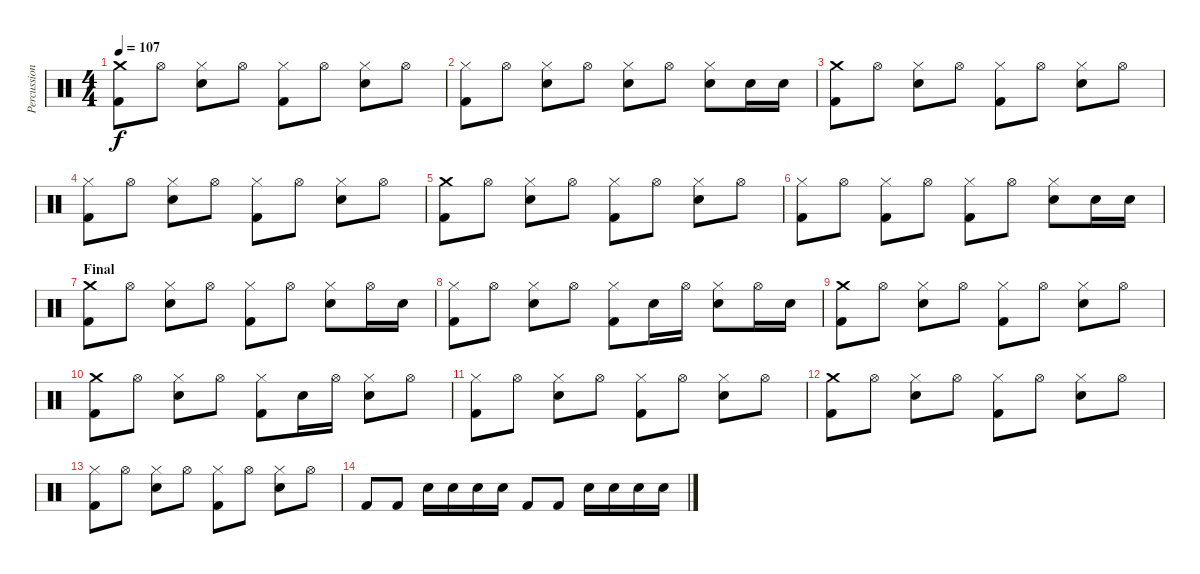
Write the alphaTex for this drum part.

\track ("Percussions" "Percussion") {instrument percussion}
\staff {score}
\articulation defaults
\ts (4 4)
\tempo 107
\clef neutral
\ks c
("Crash medium (hit)" "Kick (hit) 2").8{dy f} "Hi-Hat (open)".8 ("Hi-Hat (closed)" "Electric Snare (hit)").8 "Hi-Hat (open)".8 ("Hi-Hat (closed)" "Kick (hit) 2").8 "Hi-Hat (open)".8 ("Hi-Hat (closed)" "Electric Snare (hit)").8 "Hi-Hat (open)".8 |
("Hi-Hat (closed)" "Kick (hit) 2").8 "Hi-Hat (open)".8 ("Hi-Hat (closed)" "Electric Snare (hit)").8 "Hi-Hat (open)".8 ("Hi-Hat (closed)" "Electric Snare (hit)").8 "Hi-Hat (open)".8 ("Hi-Hat (closed)" "Electric Snare (hit)").8 "Electric Snare (hit)".16 "Electric Snare (hit)".16 |
("Crash medium (hit)" "Kick (hit) 2").8 "Hi-Hat (open)".8 ("Hi-Hat (closed)" "Electric Snare (hit)").8 "Hi-Hat (open)".8 ("Hi-Hat (closed)" "Kick (hit) 2").8 "Hi-Hat (open)".8 ("Hi-Hat (closed)" "Electric Snare (hit)").8 "Hi-Hat (open)".8 |
("Hi-Hat (closed)" "Kick (hit) 2").8 "Hi-Hat (open)".8 ("Hi-Hat (closed)" "Electric Snare (hit)").8 "Hi-Hat (open)".8 ("Hi-Hat (closed)" "Kick (hit) 2").8 "Hi-Hat (open)".8 ("Hi-Hat (closed)" "Electric Snare (hit)").8 "Hi-Hat (open)".8 |
("Crash medium (hit)" "Kick (hit) 2").8 "Hi-Hat (open)".8 ("Hi-Hat (closed)" "Electric Snare (hit)").8 "Hi-Hat (open)".8 ("Hi-Hat (closed)" "Kick (hit) 2").8 "Hi-Hat (open)".8 ("Hi-Hat (closed)" "Electric Snare (hit)").8 "Hi-Hat (open)".8 |
("Hi-Hat (closed)" "Kick (hit) 2").8 "Hi-Hat (open)".8 ("Hi-Hat (closed)" "Kick (hit) 2").8 "Hi-Hat (open)".8 ("Hi-Hat (closed)" "Kick (hit) 2").8 "Hi-Hat (open)".8 ("Hi-Hat (closed)" "Electric Snare (hit)").8 "Electric Snare (hit)".16 "Electric Snare (hit)".16 |
\section ("" "Final")
("Crash medium (hit)" "Kick (hit) 2").8 "Hi-Hat (open)".8 ("Hi-Hat (closed)" "Electric Snare (hit)").8 "Hi-Hat (open)".8 ("Hi-Hat (closed)" "Kick (hit) 2").8 "Hi-Hat (open)".8 ("Hi-Hat (closed)" "Electric Snare (hit)").8 "Hi-Hat (open)".16 "Electric Snare (hit)".16 |
("Hi-Hat (closed)" "Kick (hit) 2").8 "Hi-Hat (open)".8 ("Hi-Hat (closed)" "Electric Snare (hit)").8 "Hi-Hat (open)".8 ("Hi-Hat (closed)" "Kick (hit) 2").8 "Electric Snare (hit)".16 "Hi-Hat (open)".16 ("Hi-Hat (closed)" "Electric Snare (hit)").8 "Hi-Hat (open)".16 "Electric Snare (hit)".16 |
("Crash medium (hit)" "Kick (hit) 2").8 "Hi-Hat (open)".8 ("Hi-Hat (closed)" "Electric Snare (hit)").8 "Hi-Hat (open)".8 ("Hi-Hat (closed)" "Kick (hit) 2").8 "Hi-Hat (open)".8 ("Hi-Hat (closed)" "Electric Snare (hit)").8 "Hi-Hat (open)".8 |
("Crash medium (hit)" "Kick (hit) 2").8 "Hi-Hat (open)".8 ("Hi-Hat (closed)" "Electric Snare (hit)").8 "Hi-Hat (open)".8 ("Hi-Hat (closed)" "Kick (hit) 2").8 "Electric Snare (hit)".16 "Hi-Hat (open)".16 ("Hi-Hat (closed)" "Electric Snare (hit)").8 "Hi-Hat (open)".8 |
("Hi-Hat (closed)" "Kick (hit) 2").8 "Hi-Hat (open)".8 ("Hi-Hat (closed)" "Electric Snare (hit)").8 "Hi-Hat (open)".8 ("Hi-Hat (closed)" "Kick (hit) 2").8 "Hi-Hat (open)".8 ("Hi-Hat (closed)" "Electric Snare (hit)").8 "Hi-Hat (open)".8 |
("Crash medium (hit)" "Kick (hit) 2").8 "Hi-Hat (open)".8 ("Hi-Hat (closed)" "Electric Snare (hit)").8 "Hi-Hat (open)".8 ("Hi-Hat (closed)" "Kick (hit) 2").8 "Hi-Hat (open)".8 ("Hi-Hat (closed)" "Electric Snare (hit)").8 "Hi-Hat (open)".8 |
("Hi-Hat (closed)" "Kick (hit) 2").8 "Hi-Hat (open)".8 ("Hi-Hat (closed)" "Electric Snare (hit)").8 "Hi-Hat (open)".8 ("Hi-Hat (closed)" "Kick (hit) 2").8 "Hi-Hat (open)".8 ("Hi-Hat (closed)" "Electric Snare (hit)").8 "Hi-Hat (open)".8 |
"Kick (hit) 2".8 "Kick (hit) 2".8 "Electric Snare (hit)".16 "Electric Snare (hit)".16 "Electric Snare (hit)".16 "Electric Snare (hit)".16 "Kick (hit) 2".8 "Kick (hit) 2".8 "Electric Snare (hit)".16 "Electric Snare (hit)".16 "Electric Snare (hit)".16 "Electric Snare (hit)".16
